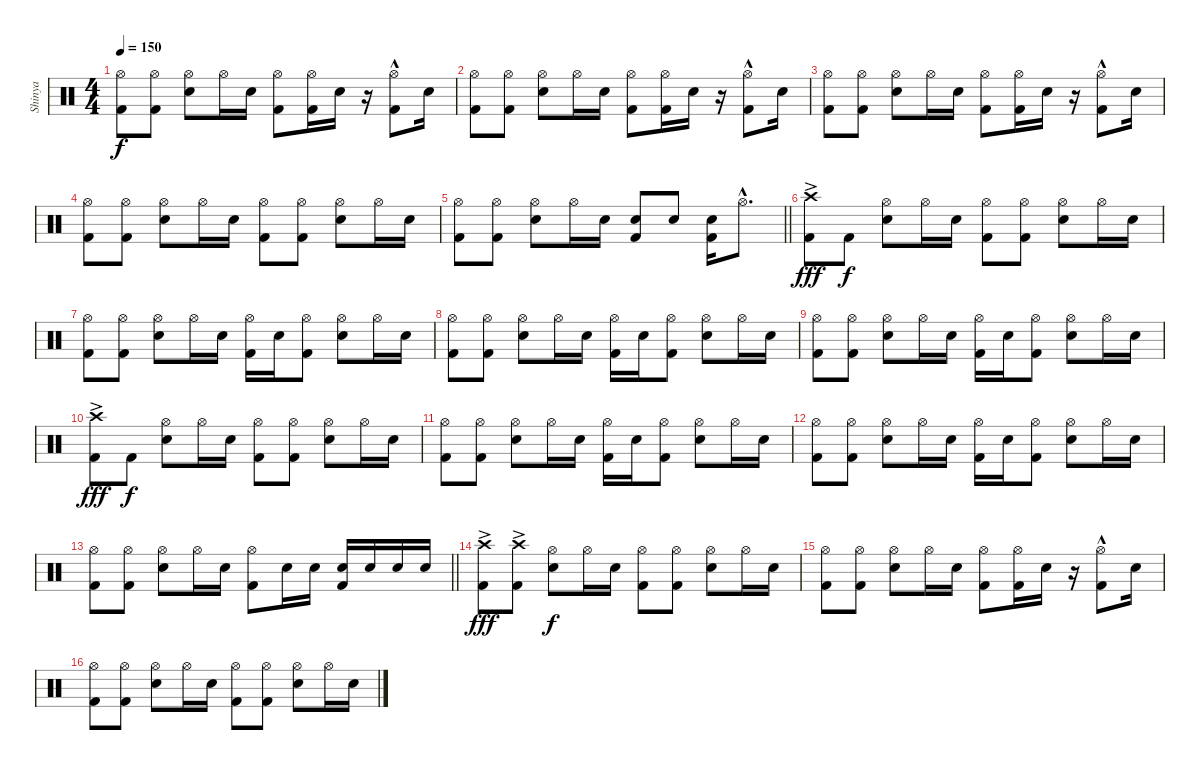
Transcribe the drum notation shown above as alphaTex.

\track ("Shinya" "Shinya") {instrument percussion}
\staff {score}
\articulation defaults
\ts (4 4)
\tempo 150
\clef neutral
\ks c
("Hi-Hat (open)" "Kick (hit) 2").8{dy f} ("Hi-Hat (open)" "Kick (hit) 2").8 ("Hi-Hat (open)" "Snare (hit) 2").8 "Hi-Hat (open)".16 "Snare (hit) 2".16 ("Hi-Hat (open)" "Kick (hit) 2").8 ("Hi-Hat (open)" "Kick (hit) 2").16 "Snare (hit) 2".16 r.16 ("Hi-Hat (open)" "Kick (hit) 2"{hac}).8 "Snare (hit) 2".16 |
("Hi-Hat (open)" "Kick (hit) 2").8 ("Hi-Hat (open)" "Kick (hit) 2").8 ("Hi-Hat (open)" "Snare (hit) 2").8 "Hi-Hat (open)".16 "Snare (hit) 2".16 ("Hi-Hat (open)" "Kick (hit) 2").8 ("Hi-Hat (open)" "Kick (hit) 2").16 "Snare (hit) 2".16 r.16 ("Hi-Hat (open)" "Kick (hit) 2"{hac}).8 "Snare (hit) 2".16 |
("Hi-Hat (open)" "Kick (hit) 2").8 ("Hi-Hat (open)" "Kick (hit) 2").8 ("Hi-Hat (open)" "Snare (hit) 2").8 "Hi-Hat (open)".16 "Snare (hit) 2".16 ("Hi-Hat (open)" "Kick (hit) 2").8 ("Hi-Hat (open)" "Kick (hit) 2").16 "Snare (hit) 2".16 r.16 ("Hi-Hat (open)" "Kick (hit) 2"{hac}).8 "Snare (hit) 2".16 |
("Hi-Hat (open)" "Kick (hit) 2").8 ("Hi-Hat (open)" "Kick (hit) 2").8 ("Hi-Hat (open)" "Snare (hit) 2").8 "Hi-Hat (open)".16 "Snare (hit) 2".16 ("Hi-Hat (open)" "Kick (hit) 2").8 ("Hi-Hat (open)" "Kick (hit) 2").8 ("Hi-Hat (open)" "Snare (hit) 2").8 "Hi-Hat (open)".16 "Snare (hit) 2".16 |
\barLineRight lightlight
("Hi-Hat (open)" "Kick (hit) 2").8 ("Hi-Hat (open)" "Kick (hit) 2").8 ("Hi-Hat (open)" "Snare (hit) 2").8 "Hi-Hat (open)".16 "Snare (hit) 2".16 ("Snare (hit) 2" "Kick (hit) 2").8 "Snare (hit) 2".8 ("Snare (hit) 2" "Kick (hit) 2").16 "Hi-Hat (open)"{hac}.8{d} |
("Crash high (hit)"{ac} "Kick (hit) 2").8{dy fff} "Kick (hit) 2".8{dy f} ("Hi-Hat (open)" "Snare (hit) 2").8 "Hi-Hat (open)".16 "Snare (hit) 2".16 ("Hi-Hat (open)" "Kick (hit) 2").8 ("Hi-Hat (open)" "Kick (hit) 2").8 ("Hi-Hat (open)" "Snare (hit) 2").8 "Hi-Hat (open)".16 "Snare (hit) 2".16 |
("Hi-Hat (open)" "Kick (hit) 2").8 ("Hi-Hat (open)" "Kick (hit) 2").8 ("Hi-Hat (open)" "Snare (hit) 2").8 "Hi-Hat (open)".16 "Snare (hit) 2".16 ("Hi-Hat (open)" "Kick (hit) 2").16 "Snare (hit) 2".16 ("Hi-Hat (open)" "Kick (hit) 2").8 ("Hi-Hat (open)" "Snare (hit) 2").8 "Hi-Hat (open)".16 "Snare (hit) 2".16 |
("Hi-Hat (open)" "Kick (hit) 2").8 ("Hi-Hat (open)" "Kick (hit) 2").8 ("Hi-Hat (open)" "Snare (hit) 2").8 "Hi-Hat (open)".16 "Snare (hit) 2".16 ("Hi-Hat (open)" "Kick (hit) 2").16 "Snare (hit) 2".16 ("Hi-Hat (open)" "Kick (hit) 2").8 ("Hi-Hat (open)" "Snare (hit) 2").8 "Hi-Hat (open)".16 "Snare (hit) 2".16 |
("Hi-Hat (open)" "Kick (hit) 2").8 ("Hi-Hat (open)" "Kick (hit) 2").8 ("Hi-Hat (open)" "Snare (hit) 2").8 "Hi-Hat (open)".16 "Snare (hit) 2".16 ("Hi-Hat (open)" "Kick (hit) 2").16 "Snare (hit) 2".16 ("Hi-Hat (open)" "Kick (hit) 2").8 ("Hi-Hat (open)" "Snare (hit) 2").8 "Hi-Hat (open)".16 "Snare (hit) 2".16 |
("Crash high (hit)"{ac} "Kick (hit) 2").8{dy fff} "Kick (hit) 2".8{dy f} ("Hi-Hat (open)" "Snare (hit) 2").8 "Hi-Hat (open)".16 "Snare (hit) 2".16 ("Hi-Hat (open)" "Kick (hit) 2").8 ("Hi-Hat (open)" "Kick (hit) 2").8 ("Hi-Hat (open)" "Snare (hit) 2").8 "Hi-Hat (open)".16 "Snare (hit) 2".16 |
("Hi-Hat (open)" "Kick (hit) 2").8 ("Hi-Hat (open)" "Kick (hit) 2").8 ("Hi-Hat (open)" "Snare (hit) 2").8 "Hi-Hat (open)".16 "Snare (hit) 2".16 ("Hi-Hat (open)" "Kick (hit) 2").16 "Snare (hit) 2".16 ("Hi-Hat (open)" "Kick (hit) 2").8 ("Hi-Hat (open)" "Snare (hit) 2").8 "Hi-Hat (open)".16 "Snare (hit) 2".16 |
("Hi-Hat (open)" "Kick (hit) 2").8 ("Hi-Hat (open)" "Kick (hit) 2").8 ("Hi-Hat (open)" "Snare (hit) 2").8 "Hi-Hat (open)".16 "Snare (hit) 2".16 ("Hi-Hat (open)" "Kick (hit) 2").16 "Snare (hit) 2".16 ("Hi-Hat (open)" "Kick (hit) 2").8 ("Hi-Hat (open)" "Snare (hit) 2").8 "Hi-Hat (open)".16 "Snare (hit) 2".16 |
\barLineRight lightlight
("Hi-Hat (open)" "Kick (hit) 2").8 ("Hi-Hat (open)" "Kick (hit) 2").8 ("Hi-Hat (open)" "Snare (hit) 2").8 "Hi-Hat (open)".16 "Snare (hit) 2".16 ("Hi-Hat (open)" "Kick (hit) 2").8 "Snare (hit) 2".16 "Snare (hit) 2".16 ("Snare (hit) 2" "Kick (hit) 2").16 "Snare (hit) 2".16 "Snare (hit) 2".16 "Snare (hit) 2".16 |
("Crash high (hit)"{ac} "Kick (hit) 2").8{dy fff} ("Crash high (hit)"{ac} "Kick (hit) 2").8 ("Hi-Hat (open)" "Snare (hit) 2").8{dy f} "Hi-Hat (open)".16 "Snare (hit) 2".16 ("Hi-Hat (open)" "Kick (hit) 2").8 ("Hi-Hat (open)" "Kick (hit) 2").8 ("Hi-Hat (open)" "Snare (hit) 2").8 "Hi-Hat (open)".16 "Snare (hit) 2".16 |
("Hi-Hat (open)" "Kick (hit) 2").8 ("Hi-Hat (open)" "Kick (hit) 2").8 ("Hi-Hat (open)" "Snare (hit) 2").8 "Hi-Hat (open)".16 "Snare (hit) 2".16 ("Hi-Hat (open)" "Kick (hit) 2").8 ("Hi-Hat (open)" "Kick (hit) 2").16 "Snare (hit) 2".16 r.16 ("Hi-Hat (open)" "Kick (hit) 2"{hac}).8 "Snare (hit) 2".16 |
("Hi-Hat (open)" "Kick (hit) 2").8 ("Hi-Hat (open)" "Kick (hit) 2").8 ("Hi-Hat (open)" "Snare (hit) 2").8 "Hi-Hat (open)".16 "Snare (hit) 2".16 ("Hi-Hat (open)" "Kick (hit) 2").8 ("Hi-Hat (open)" "Kick (hit) 2").8 ("Hi-Hat (open)" "Snare (hit) 2").8 "Hi-Hat (open)".16 "Snare (hit) 2".16
